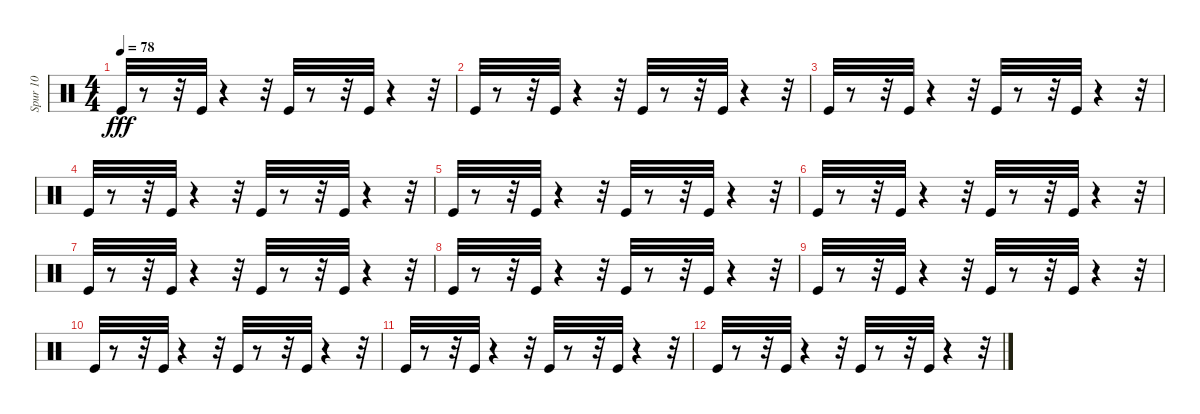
\track ("Spur 10" "Spur 10") {instrument percussion}
\staff {score}
\articulation defaults
\ts (4 4)
\tempo 78
\clef neutral
\ks c "Kick (hit)".32{dy fff}
r.8 r.32 "Kick (hit)".32 r.4 r.32 "Kick (hit)".32 r.8 r.32 "Kick (hit)".32 r.4 r.32 |
"Kick (hit)".32 r.8 r.32 "Kick (hit)".32 r.4 r.32 "Kick (hit)".32 r.8 r.32 "Kick (hit)".32 r.4 r.32 |
"Kick (hit)".32 r.8 r.32 "Kick (hit)".32 r.4 r.32 "Kick (hit)".32 r.8 r.32 "Kick (hit)".32 r.4 r.32 |
"Kick (hit)".32 r.8 r.32 "Kick (hit)".32 r.4 r.32 "Kick (hit)".32 r.8 r.32 "Kick (hit)".32 r.4 r.32 |
"Kick (hit)".32 r.8 r.32 "Kick (hit)".32 r.4 r.32 "Kick (hit)".32 r.8 r.32 "Kick (hit)".32 r.4 r.32 |
"Kick (hit)".32 r.8 r.32 "Kick (hit)".32 r.4 r.32 "Kick (hit)".32 r.8 r.32 "Kick (hit)".32 r.4 r.32 |
"Kick (hit)".32 r.8 r.32 "Kick (hit)".32 r.4 r.32 "Kick (hit)".32 r.8 r.32 "Kick (hit)".32 r.4 r.32 |
"Kick (hit)".32 r.8 r.32 "Kick (hit)".32 r.4 r.32 "Kick (hit)".32 r.8 r.32 "Kick (hit)".32 r.4 r.32 |
"Kick (hit)".32 r.8 r.32 "Kick (hit)".32 r.4 r.32 "Kick (hit)".32 r.8 r.32 "Kick (hit)".32 r.4 r.32 |
"Kick (hit)".32 r.8 r.32 "Kick (hit)".32 r.4 r.32 "Kick (hit)".32 r.8 r.32 "Kick (hit)".32 r.4 r.32 |
"Kick (hit)".32 r.8 r.32 "Kick (hit)".32 r.4 r.32 "Kick (hit)".32 r.8 r.32 "Kick (hit)".32 r.4 r.32 |
"Kick (hit)".32 r.8 r.32 "Kick (hit)".32 r.4 r.32 "Kick (hit)".32 r.8 r.32 "Kick (hit)".32 r.4 r.32
